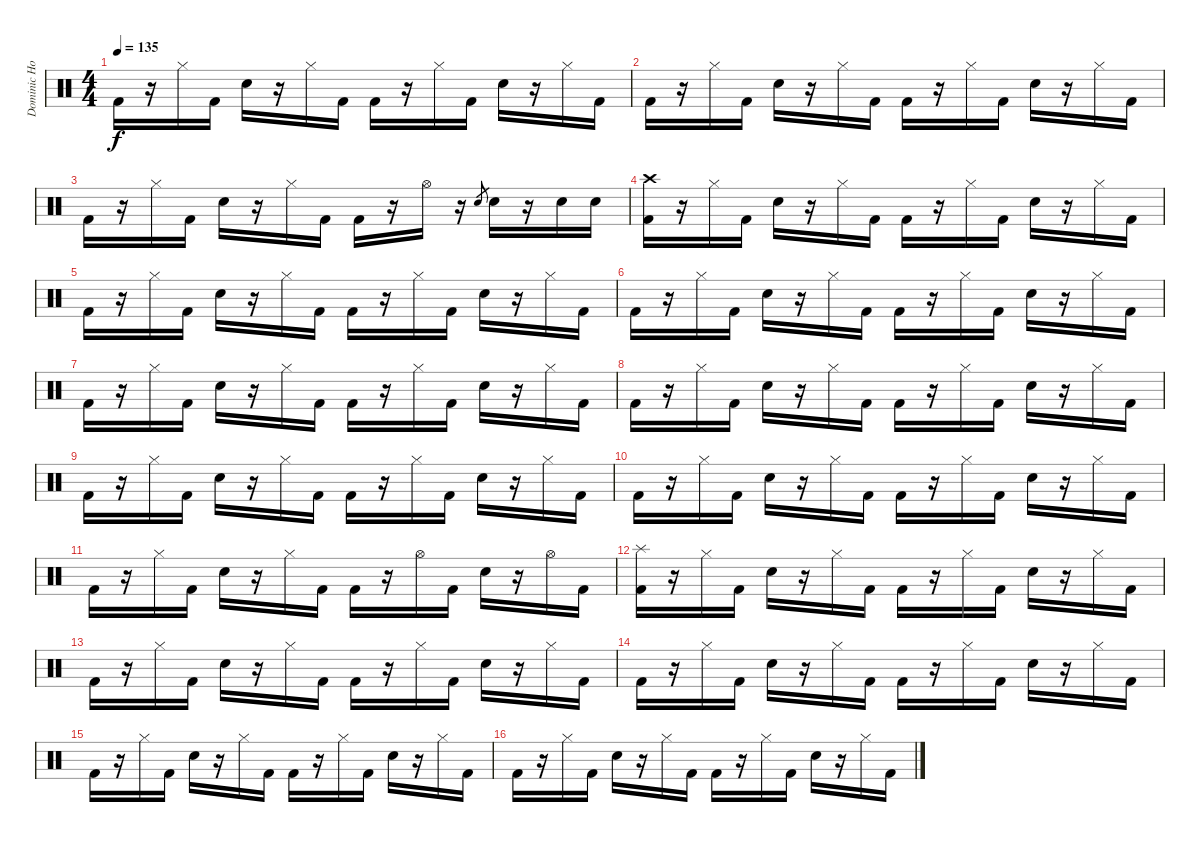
\track ("Dominic Howard (Drums)" "Dominic Ho") {instrument percussion}
\staff {score}
\articulation defaults
\ts (4 4)
\tempo 135
\clef neutral
\ks c "Kick (hit) 2".16{dy f}
r.16 "Hi-Hat (closed)".16 "Kick (hit) 2".16 "Electric Snare (hit)".16 r.16 "Hi-Hat (closed)".16 "Kick (hit) 2".16 "Kick (hit) 2".16 r.16 "Hi-Hat (closed)".16 "Kick (hit) 2".16 "Electric Snare (hit)".16 r.16 "Hi-Hat (closed)".16 "Kick (hit) 2".16 |
"Kick (hit) 2".16 r.16 "Hi-Hat (closed)".16 "Kick (hit) 2".16 "Electric Snare (hit)".16 r.16 "Hi-Hat (closed)".16 "Kick (hit) 2".16 "Kick (hit) 2".16 r.16 "Hi-Hat (closed)".16 "Kick (hit) 2".16 "Electric Snare (hit)".16 r.16 "Hi-Hat (closed)".16 "Kick (hit) 2".16 |
"Kick (hit) 2".16 r.16 "Hi-Hat (closed)".16 "Kick (hit) 2".16 "Electric Snare (hit)".16 r.16 "Hi-Hat (closed)".16 "Kick (hit) 2".16 "Kick (hit) 2".16 r.16 "Hi-Hat (open)".16 r.16 "Electric Snare (hit)".8{gr} "Electric Snare (hit)".16 r.16 "Electric Snare (hit)".16 "Electric Snare (hit)".16 |
("Crash high (hit)" "Kick (hit) 2").16 r.16 "Hi-Hat (closed)".16 "Kick (hit) 2".16 "Electric Snare (hit)".16 r.16 "Hi-Hat (closed)".16 "Kick (hit) 2".16 "Kick (hit) 2".16 r.16 "Hi-Hat (closed)".16 "Kick (hit) 2".16 "Electric Snare (hit)".16 r.16 "Hi-Hat (closed)".16 "Kick (hit) 2".16 |
"Kick (hit) 2".16 r.16 "Hi-Hat (closed)".16 "Kick (hit) 2".16 "Electric Snare (hit)".16 r.16 "Hi-Hat (closed)".16 "Kick (hit) 2".16 "Kick (hit) 2".16 r.16 "Hi-Hat (closed)".16 "Kick (hit) 2".16 "Electric Snare (hit)".16 r.16 "Hi-Hat (closed)".16 "Kick (hit) 2".16 |
"Kick (hit) 2".16 r.16 "Hi-Hat (closed)".16 "Kick (hit) 2".16 "Electric Snare (hit)".16 r.16 "Hi-Hat (closed)".16 "Kick (hit) 2".16 "Kick (hit) 2".16 r.16 "Hi-Hat (closed)".16 "Kick (hit) 2".16 "Electric Snare (hit)".16 r.16 "Hi-Hat (closed)".16 "Kick (hit) 2".16 |
"Kick (hit) 2".16 r.16 "Hi-Hat (closed)".16 "Kick (hit) 2".16 "Electric Snare (hit)".16 r.16 "Hi-Hat (closed)".16 "Kick (hit) 2".16 "Kick (hit) 2".16 r.16 "Hi-Hat (closed)".16 "Kick (hit) 2".16 "Electric Snare (hit)".16 r.16 "Hi-Hat (closed)".16 "Kick (hit) 2".16 |
"Kick (hit) 2".16 r.16 "Hi-Hat (closed)".16 "Kick (hit) 2".16 "Electric Snare (hit)".16 r.16 "Hi-Hat (closed)".16 "Kick (hit) 2".16 "Kick (hit) 2".16 r.16 "Hi-Hat (closed)".16 "Kick (hit) 2".16 "Electric Snare (hit)".16 r.16 "Hi-Hat (closed)".16 "Kick (hit) 2".16 |
"Kick (hit) 2".16 r.16 "Hi-Hat (closed)".16 "Kick (hit) 2".16 "Electric Snare (hit)".16 r.16 "Hi-Hat (closed)".16 "Kick (hit) 2".16 "Kick (hit) 2".16 r.16 "Hi-Hat (closed)".16 "Kick (hit) 2".16 "Electric Snare (hit)".16 r.16 "Hi-Hat (closed)".16 "Kick (hit) 2".16 |
"Kick (hit) 2".16 r.16 "Hi-Hat (closed)".16 "Kick (hit) 2".16 "Electric Snare (hit)".16 r.16 "Hi-Hat (closed)".16 "Kick (hit) 2".16 "Kick (hit) 2".16 r.16 "Hi-Hat (closed)".16 "Kick (hit) 2".16 "Electric Snare (hit)".16 r.16 "Hi-Hat (closed)".16 "Kick (hit) 2".16 |
"Kick (hit) 2".16 r.16 "Hi-Hat (closed)".16 "Kick (hit) 2".16 "Electric Snare (hit)".16 r.16 "Hi-Hat (closed)".16 "Kick (hit) 2".16 "Kick (hit) 2".16 r.16 "Hi-Hat (open)".16 "Kick (hit) 2".16 "Electric Snare (hit)".16 r.16 "Hi-Hat (open)".16 "Kick (hit) 2".16 |
("Splash (hit)" "Kick (hit) 2").16 r.16 "Hi-Hat (closed)".16 "Kick (hit) 2".16 "Electric Snare (hit)".16 r.16 "Hi-Hat (closed)".16 "Kick (hit) 2".16 "Kick (hit) 2".16 r.16 "Hi-Hat (closed)".16 "Kick (hit) 2".16 "Electric Snare (hit)".16 r.16 "Hi-Hat (closed)".16 "Kick (hit) 2".16 |
"Kick (hit) 2".16 r.16 "Hi-Hat (closed)".16 "Kick (hit) 2".16 "Electric Snare (hit)".16 r.16 "Hi-Hat (closed)".16 "Kick (hit) 2".16 "Kick (hit) 2".16 r.16 "Hi-Hat (closed)".16 "Kick (hit) 2".16 "Electric Snare (hit)".16 r.16 "Hi-Hat (closed)".16 "Kick (hit) 2".16 |
"Kick (hit) 2".16 r.16 "Hi-Hat (closed)".16 "Kick (hit) 2".16 "Electric Snare (hit)".16 r.16 "Hi-Hat (closed)".16 "Kick (hit) 2".16 "Kick (hit) 2".16 r.16 "Hi-Hat (closed)".16 "Kick (hit) 2".16 "Electric Snare (hit)".16 r.16 "Hi-Hat (closed)".16 "Kick (hit) 2".16 |
"Kick (hit) 2".16 r.16 "Hi-Hat (closed)".16 "Kick (hit) 2".16 "Electric Snare (hit)".16 r.16 "Hi-Hat (closed)".16 "Kick (hit) 2".16 "Kick (hit) 2".16 r.16 "Hi-Hat (closed)".16 "Kick (hit) 2".16 "Electric Snare (hit)".16 r.16 "Hi-Hat (closed)".16 "Kick (hit) 2".16 |
"Kick (hit) 2".16 r.16 "Hi-Hat (closed)".16 "Kick (hit) 2".16 "Electric Snare (hit)".16 r.16 "Hi-Hat (closed)".16 "Kick (hit) 2".16 "Kick (hit) 2".16 r.16 "Hi-Hat (closed)".16 "Kick (hit) 2".16 "Electric Snare (hit)".16 r.16 "Hi-Hat (closed)".16 "Kick (hit) 2".16
